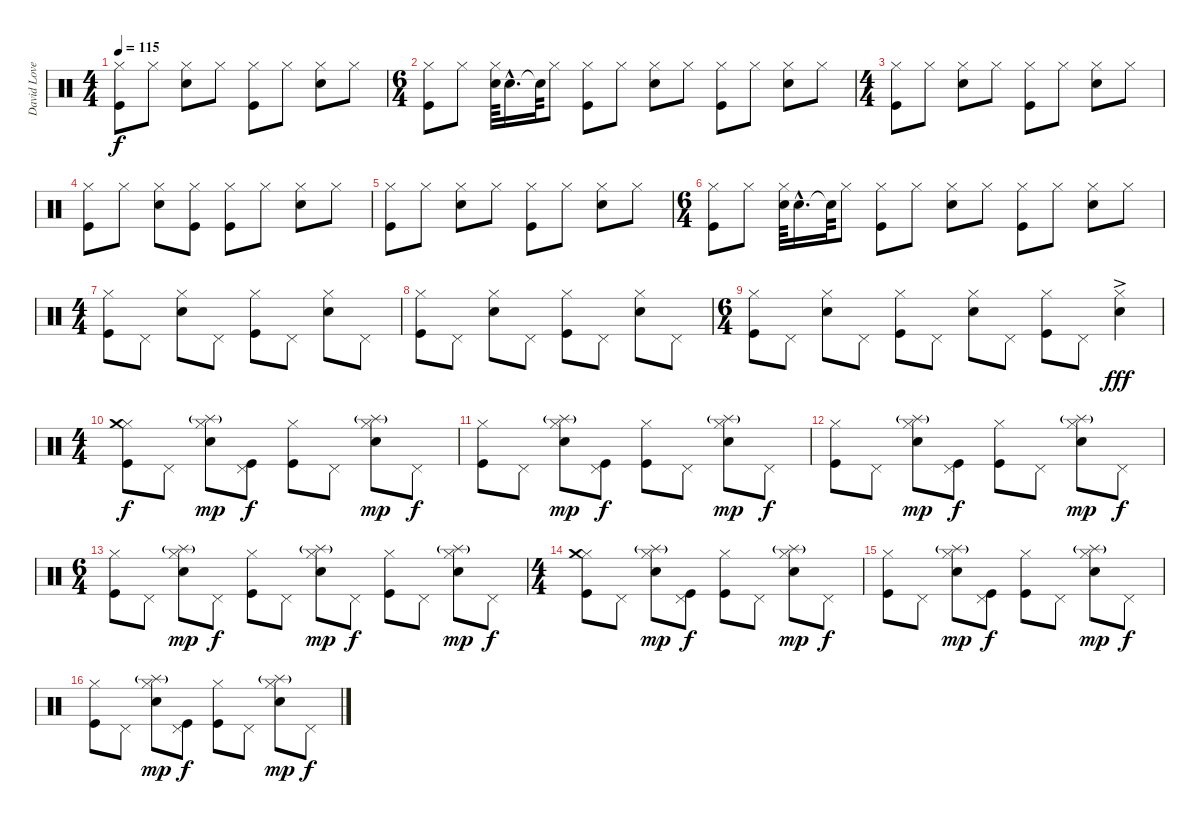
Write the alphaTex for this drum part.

\track ("David Lovering" "David Love") {instrument percussion}
\staff {score}
\articulation defaults
\ts (4 4)
\tempo 115
\clef neutral
\ks c
("Hi-Hat (closed)" "Kick (hit)").8{dy f} "Hi-Hat (closed)".8 ("Hi-Hat (closed)" "Snare (hit) 2").8 "Hi-Hat (closed)".8 ("Hi-Hat (closed)" "Kick (hit)").8 "Hi-Hat (closed)".8 ("Hi-Hat (closed)" "Snare (hit) 2").8 "Hi-Hat (closed)".8 |
\ts (6 4)
("Hi-Hat (closed)" "Kick (hit)").8 "Hi-Hat (closed)".8 ("Hi-Hat (closed)" "Snare (hit) 2").64 "Snare (hit) 2"{hac}.16{d} "Snare (hit) 2"{t}.64 "Hi-Hat (closed)".8 ("Hi-Hat (closed)" "Kick (hit)").8 "Hi-Hat (closed)".8 ("Hi-Hat (closed)" "Snare (hit) 2").8 "Hi-Hat (closed)".8 ("Hi-Hat (closed)" "Kick (hit)").8 "Hi-Hat (closed)".8 ("Hi-Hat (closed)" "Snare (hit) 2").8 "Hi-Hat (closed)".8 |
\ts (4 4)
("Hi-Hat (closed)" "Kick (hit)").8 "Hi-Hat (closed)".8 ("Hi-Hat (closed)" "Snare (hit) 2").8 "Hi-Hat (closed)".8 ("Hi-Hat (closed)" "Kick (hit)").8 "Hi-Hat (closed)".8 ("Hi-Hat (closed)" "Snare (hit) 2").8 "Hi-Hat (closed)".8 |
("Hi-Hat (closed)" "Kick (hit)").8 "Hi-Hat (closed)".8 ("Hi-Hat (closed)" "Snare (hit) 2").8 ("Hi-Hat (closed)" "Kick (hit)").8 ("Hi-Hat (closed)" "Kick (hit)").8 "Hi-Hat (closed)".8 ("Hi-Hat (closed)" "Snare (hit) 2").8 "Hi-Hat (closed)".8 |
("Hi-Hat (closed)" "Kick (hit)").8 "Hi-Hat (closed)".8 ("Hi-Hat (closed)" "Snare (hit) 2").8 "Hi-Hat (closed)".8 ("Hi-Hat (closed)" "Kick (hit)").8 "Hi-Hat (closed)".8 ("Hi-Hat (closed)" "Snare (hit) 2").8 "Hi-Hat (closed)".8 |
\ts (6 4)
("Hi-Hat (closed)" "Kick (hit)").8 "Hi-Hat (closed)".8 ("Hi-Hat (closed)" "Snare (hit) 2").64 "Snare (hit) 2"{hac}.16{d} "Snare (hit) 2"{t}.64 "Hi-Hat (closed)".8 ("Hi-Hat (closed)" "Kick (hit)").8 "Hi-Hat (closed)".8 ("Hi-Hat (closed)" "Snare (hit) 2").8 "Hi-Hat (closed)".8 ("Hi-Hat (closed)" "Kick (hit)").8 "Hi-Hat (closed)".8 ("Hi-Hat (closed)" "Snare (hit) 2").8 "Hi-Hat (closed)".8 |
\ts (4 4)
\section ("" "")
("Hi-Hat (closed)" "Kick (hit)").8 "Pedal Hi-Hat (hit)".8 ("Hi-Hat (closed)" "Snare (hit) 2").8 "Pedal Hi-Hat (hit)".8 ("Hi-Hat (closed)" "Kick (hit)").8 "Pedal Hi-Hat (hit)".8 ("Hi-Hat (closed)" "Snare (hit) 2").8 "Pedal Hi-Hat (hit)".8 |
("Hi-Hat (closed)" "Kick (hit)").8 "Pedal Hi-Hat (hit)".8 ("Hi-Hat (closed)" "Snare (hit) 2").8 "Pedal Hi-Hat (hit)".8 ("Hi-Hat (closed)" "Kick (hit)").8 "Pedal Hi-Hat (hit)".8 ("Hi-Hat (closed)" "Snare (hit) 2").8 "Pedal Hi-Hat (hit)".8 |
\ts (6 4)
("Hi-Hat (closed)" "Kick (hit)").8 "Pedal Hi-Hat (hit)".8 ("Hi-Hat (closed)" "Snare (hit) 2").8 "Pedal Hi-Hat (hit)".8 ("Hi-Hat (closed)" "Kick (hit)").8 "Pedal Hi-Hat (hit)".8 ("Hi-Hat (closed)" "Snare (hit) 2").8 "Pedal Hi-Hat (hit)".8 ("Hi-Hat (closed)" "Kick (hit)").8 "Pedal Hi-Hat (hit)".8 ("Hi-Hat (closed)" "Snare (hit) 2"{ac}).4{dy fff} |
\ts (4 4)
("Hi-Hat (closed)" "Crash medium (hit)" "Kick (hit)").8{dy f} "Pedal Hi-Hat (hit)".8 ("Hi-Hat (closed)" "Splash (hit)"{g} "Snare (hit) 2").8{dy mp} ("Pedal Hi-Hat (hit)" "Kick (hit)").8{dy f} ("Hi-Hat (closed)" "Kick (hit)").8 "Pedal Hi-Hat (hit)".8 ("Hi-Hat (closed)" "Splash (hit)"{g} "Snare (hit) 2").8{dy mp} "Pedal Hi-Hat (hit)".8{dy f} |
("Hi-Hat (closed)" "Kick (hit)").8 "Pedal Hi-Hat (hit)".8 ("Hi-Hat (closed)" "Splash (hit)"{g} "Snare (hit) 2").8{dy mp} ("Pedal Hi-Hat (hit)" "Kick (hit)").8{dy f} ("Hi-Hat (closed)" "Kick (hit)").8 "Pedal Hi-Hat (hit)".8 ("Hi-Hat (closed)" "Splash (hit)"{g} "Snare (hit) 2").8{dy mp} "Pedal Hi-Hat (hit)".8{dy f} |
("Hi-Hat (closed)" "Kick (hit)").8 "Pedal Hi-Hat (hit)".8 ("Hi-Hat (closed)" "Splash (hit)"{g} "Snare (hit) 2").8{dy mp} ("Pedal Hi-Hat (hit)" "Kick (hit)").8{dy f} ("Hi-Hat (closed)" "Kick (hit)").8 "Pedal Hi-Hat (hit)".8 ("Hi-Hat (closed)" "Splash (hit)"{g} "Snare (hit) 2").8{dy mp} "Pedal Hi-Hat (hit)".8{dy f} |
\ts (6 4)
("Hi-Hat (closed)" "Kick (hit)").8 "Pedal Hi-Hat (hit)".8 ("Hi-Hat (closed)" "Splash (hit)"{g} "Snare (hit) 2").8{dy mp} "Pedal Hi-Hat (hit)".8{dy f} ("Hi-Hat (closed)" "Kick (hit)").8 "Pedal Hi-Hat (hit)".8 ("Hi-Hat (closed)" "Splash (hit)"{g} "Snare (hit) 2").8{dy mp} "Pedal Hi-Hat (hit)".8{dy f} ("Hi-Hat (closed)" "Kick (hit)").8 "Pedal Hi-Hat (hit)".8 ("Hi-Hat (closed)" "Splash (hit)"{g} "Snare (hit) 2").8{dy mp} "Pedal Hi-Hat (hit)".8{dy f} |
\ts (4 4)
("Hi-Hat (closed)" "Crash medium (hit)" "Kick (hit)").8 "Pedal Hi-Hat (hit)".8 ("Hi-Hat (closed)" "Splash (hit)"{g} "Snare (hit) 2").8{dy mp} ("Pedal Hi-Hat (hit)" "Kick (hit)").8{dy f} ("Hi-Hat (closed)" "Kick (hit)").8 "Pedal Hi-Hat (hit)".8 ("Hi-Hat (closed)" "Splash (hit)"{g} "Snare (hit) 2").8{dy mp} "Pedal Hi-Hat (hit)".8{dy f} |
("Hi-Hat (closed)" "Kick (hit)").8 "Pedal Hi-Hat (hit)".8 ("Hi-Hat (closed)" "Splash (hit)"{g} "Snare (hit) 2").8{dy mp} ("Pedal Hi-Hat (hit)" "Kick (hit)").8{dy f} ("Hi-Hat (closed)" "Kick (hit)").8 "Pedal Hi-Hat (hit)".8 ("Hi-Hat (closed)" "Splash (hit)"{g} "Snare (hit) 2").8{dy mp} "Pedal Hi-Hat (hit)".8{dy f} |
("Hi-Hat (closed)" "Kick (hit)").8 "Pedal Hi-Hat (hit)".8 ("Hi-Hat (closed)" "Splash (hit)"{g} "Snare (hit) 2").8{dy mp} ("Pedal Hi-Hat (hit)" "Kick (hit)").8{dy f} ("Hi-Hat (closed)" "Kick (hit)").8 "Pedal Hi-Hat (hit)".8 ("Hi-Hat (closed)" "Splash (hit)"{g} "Snare (hit) 2").8{dy mp} "Pedal Hi-Hat (hit)".8{dy f}
